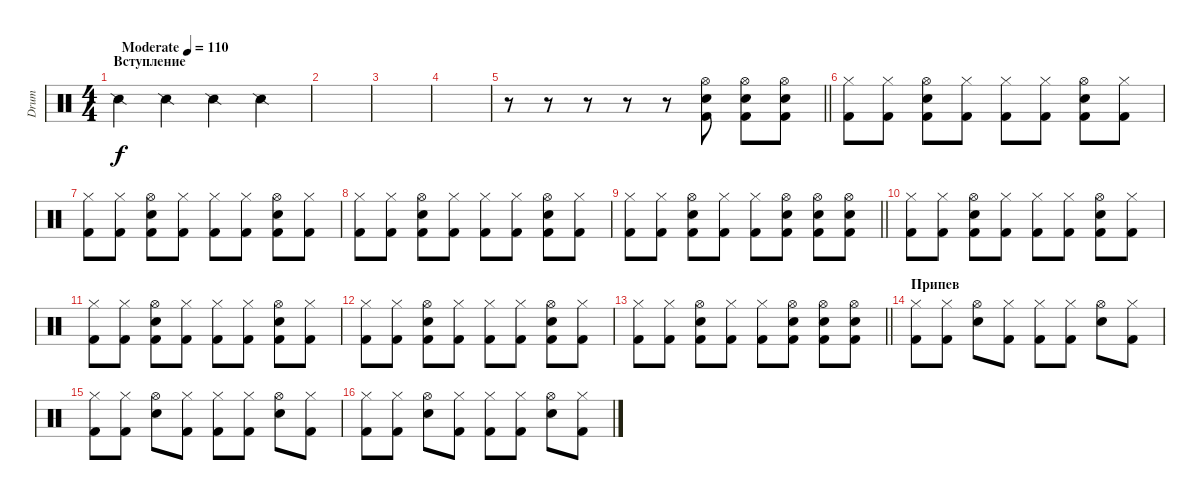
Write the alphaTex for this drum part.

\track ("Drum" "Drum") {instrument percussion}
\staff {score}
\articulation defaults
\ts (4 4)
\section ("" "Вступление")
\tempo (110 "Moderate")
\clef neutral
\ks c "Snare (side stick) 2".4{dy f} "Snare (side stick) 2".4 "Snare (side stick) 2".4 "Snare (side stick) 2".4
|
|
|
|
\barLineRight lightlight
r.8 r.8 r.8 r.8 r.8 ("Hi-Hat (open)" "Snare (hit) 2" "Kick (hit) 2").8 ("Hi-Hat (open)" "Snare (hit) 2" "Kick (hit) 2").8 ("Hi-Hat (open)" "Snare (hit) 2" "Kick (hit) 2").8 |
\section ("" "")
("Hi-Hat (closed)" "Kick (hit) 2").8 ("Hi-Hat (closed)" "Kick (hit) 2").8 ("Hi-Hat (open)" "Snare (hit) 2" "Kick (hit) 2").8 ("Hi-Hat (closed)" "Kick (hit) 2").8 ("Hi-Hat (closed)" "Kick (hit) 2").8 ("Hi-Hat (closed)" "Kick (hit) 2").8 ("Hi-Hat (open)" "Snare (hit) 2" "Kick (hit) 2").8 ("Hi-Hat (closed)" "Kick (hit) 2").8 |
("Hi-Hat (closed)" "Kick (hit) 2").8 ("Hi-Hat (closed)" "Kick (hit) 2").8 ("Hi-Hat (open)" "Snare (hit) 2" "Kick (hit) 2").8 ("Hi-Hat (closed)" "Kick (hit) 2").8 ("Hi-Hat (closed)" "Kick (hit) 2").8 ("Hi-Hat (closed)" "Kick (hit) 2").8 ("Hi-Hat (open)" "Snare (hit) 2" "Kick (hit) 2").8 ("Hi-Hat (closed)" "Kick (hit) 2").8 |
("Hi-Hat (closed)" "Kick (hit) 2").8 ("Hi-Hat (closed)" "Kick (hit) 2").8 ("Hi-Hat (open)" "Snare (hit) 2" "Kick (hit) 2").8 ("Hi-Hat (closed)" "Kick (hit) 2").8 ("Hi-Hat (closed)" "Kick (hit) 2").8 ("Hi-Hat (closed)" "Kick (hit) 2").8 ("Hi-Hat (open)" "Snare (hit) 2" "Kick (hit) 2").8 ("Hi-Hat (closed)" "Kick (hit) 2").8 |
\barLineRight lightlight
("Hi-Hat (closed)" "Kick (hit) 2").8 ("Hi-Hat (closed)" "Kick (hit) 2").8 ("Hi-Hat (open)" "Snare (hit) 2" "Kick (hit) 2").8 ("Hi-Hat (closed)" "Kick (hit) 2").8 ("Hi-Hat (closed)" "Kick (hit) 2").8 ("Hi-Hat (open)" "Snare (hit) 2" "Kick (hit) 2").8 ("Hi-Hat (open)" "Snare (hit) 2" "Kick (hit) 2").8 ("Hi-Hat (open)" "Snare (hit) 2" "Kick (hit) 2").8 |
("Hi-Hat (closed)" "Kick (hit) 2").8 ("Hi-Hat (closed)" "Kick (hit) 2").8 ("Hi-Hat (open)" "Snare (hit) 2" "Kick (hit) 2").8 ("Hi-Hat (closed)" "Kick (hit) 2").8 ("Hi-Hat (closed)" "Kick (hit) 2").8 ("Hi-Hat (closed)" "Kick (hit) 2").8 ("Hi-Hat (open)" "Snare (hit) 2" "Kick (hit) 2").8 ("Hi-Hat (closed)" "Kick (hit) 2").8 |
("Hi-Hat (closed)" "Kick (hit) 2").8 ("Hi-Hat (closed)" "Kick (hit) 2").8 ("Hi-Hat (open)" "Snare (hit) 2" "Kick (hit) 2").8 ("Hi-Hat (closed)" "Kick (hit) 2").8 ("Hi-Hat (closed)" "Kick (hit) 2").8 ("Hi-Hat (closed)" "Kick (hit) 2").8 ("Hi-Hat (open)" "Snare (hit) 2" "Kick (hit) 2").8 ("Hi-Hat (closed)" "Kick (hit) 2").8 |
("Hi-Hat (closed)" "Kick (hit) 2").8 ("Hi-Hat (closed)" "Kick (hit) 2").8 ("Hi-Hat (open)" "Snare (hit) 2" "Kick (hit) 2").8 ("Hi-Hat (closed)" "Kick (hit) 2").8 ("Hi-Hat (closed)" "Kick (hit) 2").8 ("Hi-Hat (closed)" "Kick (hit) 2").8 ("Hi-Hat (open)" "Snare (hit) 2" "Kick (hit) 2").8 ("Hi-Hat (closed)" "Kick (hit) 2").8 |
\barLineRight lightlight
("Hi-Hat (closed)" "Kick (hit) 2").8 ("Hi-Hat (closed)" "Kick (hit) 2").8 ("Hi-Hat (open)" "Snare (hit) 2" "Kick (hit) 2").8 ("Hi-Hat (closed)" "Kick (hit) 2").8 ("Hi-Hat (closed)" "Kick (hit) 2").8 ("Hi-Hat (open)" "Snare (hit) 2" "Kick (hit) 2").8 ("Hi-Hat (open)" "Snare (hit) 2" "Kick (hit) 2").8 ("Hi-Hat (open)" "Snare (hit) 2" "Kick (hit) 2").8 |
\section ("" "Припев")
("Hi-Hat (closed)" "Kick (hit) 2").8 ("Hi-Hat (closed)" "Kick (hit) 2").8 ("Hi-Hat (open)" "Snare (hit) 2").8 ("Hi-Hat (closed)" "Kick (hit) 2").8 ("Hi-Hat (closed)" "Kick (hit) 2").8 ("Hi-Hat (closed)" "Kick (hit) 2").8 ("Hi-Hat (open)" "Snare (hit) 2").8 ("Hi-Hat (closed)" "Kick (hit) 2").8 |
("Hi-Hat (closed)" "Kick (hit) 2").8 ("Hi-Hat (closed)" "Kick (hit) 2").8 ("Hi-Hat (open)" "Snare (hit) 2").8 ("Hi-Hat (closed)" "Kick (hit) 2").8 ("Hi-Hat (closed)" "Kick (hit) 2").8 ("Hi-Hat (closed)" "Kick (hit) 2").8 ("Hi-Hat (open)" "Snare (hit) 2").8 ("Hi-Hat (closed)" "Kick (hit) 2").8 |
("Hi-Hat (closed)" "Kick (hit) 2").8 ("Hi-Hat (closed)" "Kick (hit) 2").8 ("Hi-Hat (open)" "Snare (hit) 2").8 ("Hi-Hat (closed)" "Kick (hit) 2").8 ("Hi-Hat (closed)" "Kick (hit) 2").8 ("Hi-Hat (closed)" "Kick (hit) 2").8 ("Hi-Hat (open)" "Snare (hit) 2").8 ("Hi-Hat (closed)" "Kick (hit) 2").8
